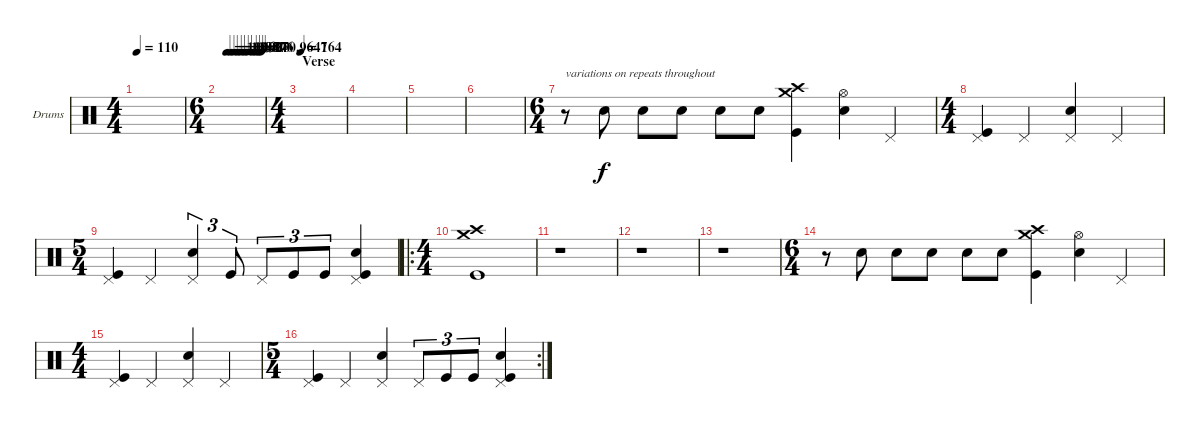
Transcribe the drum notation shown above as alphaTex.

\defaultSystemsLayout 4
\bracketExtendMode groupsimilarinstruments
\firstSystemTrackNameOrientation horizontal
\otherSystemsTrackNameOrientation horizontal
\track ("Drumkit" "Drums") {instrument percussion}
\staff {score}
\articulation defaults
\ts (4 4)
\tempo 110
\clef neutral
\ks c
|
\ts (6 4)
\tempo (109 0.1625)
\tempo (108 0.25)
\tempo (106 0.325)
\tempo (104 0.4125)
\tempo (102 0.4875)
\tempo (95 0.56875)
\tempo (90 0.64375)
\tempo (84 0.75)
\tempo (80 0.81875)
\tempo (76 0.89375)
\tempo (70.9647 0.95)
|
\ts (4 4)
\section ("" "Verse")
\tempo 164
|
|
|
|
\ts (6 4)
r.8{txt "variations on repeats throughout"} "Snare (hit) 2".8 "Snare (hit) 2".8 "Snare (hit) 2".8 "Snare (hit) 2".8 "Snare (hit) 2".8 ("Crash high (hit)" "Kick (hit)" "Crash medium (hit)").4 ("Snare (hit) 2" "Hi-Hat (open)").4 "Pedal Hi-Hat (hit)".4 |
\ts (4 4)
("Pedal Hi-Hat (hit)" "Kick (hit)").4 "Pedal Hi-Hat (hit)".4 ("Snare (hit) 2" "Pedal Hi-Hat (hit)").4 "Pedal Hi-Hat (hit)".4 |
\ts (5 4)
("Kick (hit)" "Pedal Hi-Hat (hit)").4 "Pedal Hi-Hat (hit)".4 ("Snare (hit) 2" "Pedal Hi-Hat (hit)").4{tu (3 2)} "Kick (hit)".8{tu (3 2)} "Pedal Hi-Hat (hit)".8{tu (3 2)} "Kick (hit)".8{tu (3 2)} "Kick (hit)".8{tu (3 2)} ("Snare (hit) 2" "Pedal Hi-Hat (hit)" "Kick (hit)").4 |
\ro
\ts (4 4)
("Kick (hit)" "Crash medium (hit)" "Crash high (hit)").1 |
r.1 |
r.1 |
r.1 |
\ts (6 4)
r.8 "Snare (hit) 2".8 "Snare (hit) 2".8 "Snare (hit) 2".8 "Snare (hit) 2".8 "Snare (hit) 2".8 ("Crash high (hit)" "Kick (hit)" "Crash medium (hit)").4 ("Snare (hit) 2" "Hi-Hat (open)").4 "Pedal Hi-Hat (hit)".4 |
\ts (4 4)
("Pedal Hi-Hat (hit)" "Kick (hit)").4 "Pedal Hi-Hat (hit)".4 ("Snare (hit) 2" "Pedal Hi-Hat (hit)").4 "Pedal Hi-Hat (hit)".4 |
\rc 2
\ts (5 4)
("Kick (hit)" "Pedal Hi-Hat (hit)").4 "Pedal Hi-Hat (hit)".4 ("Snare (hit) 2" "Pedal Hi-Hat (hit)").4 "Pedal Hi-Hat (hit)".8{tu (3 2)} "Kick (hit)".8{tu (3 2)} "Kick (hit)".8{tu (3 2)} ("Snare (hit) 2" "Pedal Hi-Hat (hit)" "Kick (hit)").4
